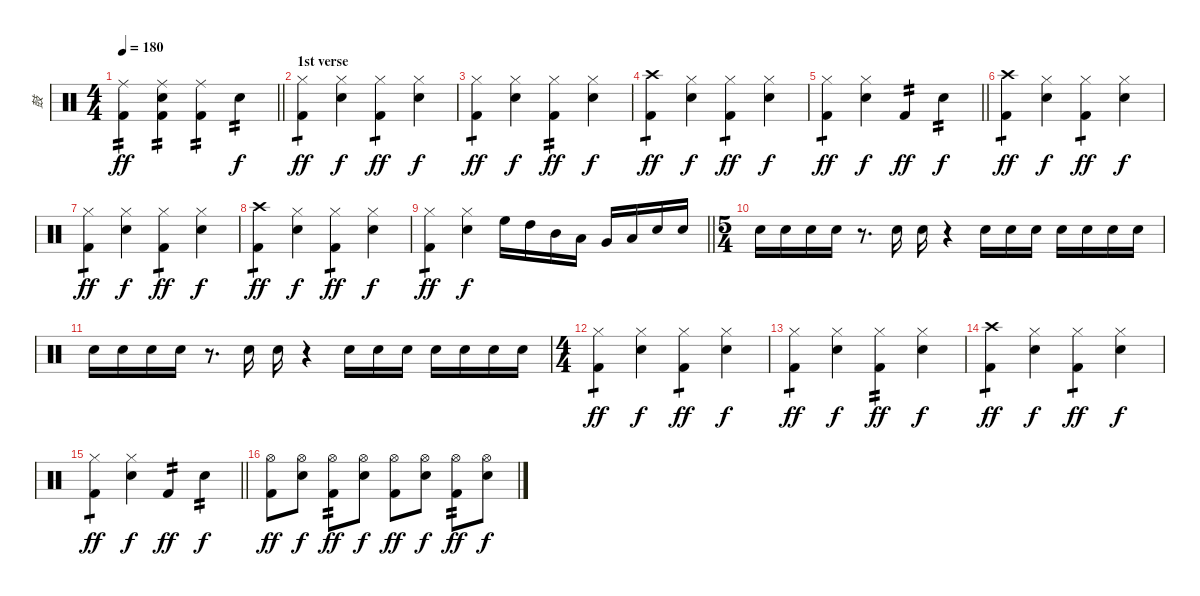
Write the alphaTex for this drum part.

\track ("鼓" "鼓") {instrument percussion}
\staff {score}
\articulation defaults
\ts (4 4)
\tempo 180
\clef neutral
\barLineRight lightlight
\ks c
("Ride (middle)" "Kick (hit) 2").4{tp 2 dy ff} ("Ride (middle)" "Snare (hit) 2" "Kick (hit) 2").4{tp 2} ("Ride (middle)" "Kick (hit) 2").4{tp 2} "Snare (hit) 2".4{tp 2 dy f} |
\section ("" "1st verse")
("Hi-Hat (closed)" "Kick (hit) 2").4{tp 1 dy ff} ("Hi-Hat (closed)" "Snare (hit) 2").4{dy f} ("Hi-Hat (closed)" "Kick (hit) 2").4{tp 1 dy ff} ("Hi-Hat (closed)" "Snare (hit) 2").4{dy f} |
("Hi-Hat (closed)" "Kick (hit) 2").4{tp 1 dy ff} ("Hi-Hat (closed)" "Snare (hit) 2").4{dy f} ("Hi-Hat (closed)" "Kick (hit) 2").4{tp 2 dy ff} ("Hi-Hat (closed)" "Snare (hit) 2").4{dy f} |
("Crash high (hit)" "Kick (hit) 2").4{tp 1 dy ff} ("Hi-Hat (closed)" "Snare (hit) 2").4{dy f} ("Hi-Hat (closed)" "Kick (hit) 2").4{tp 1 dy ff} ("Hi-Hat (closed)" "Snare (hit) 2").4{dy f} |
\barLineRight lightlight
("Hi-Hat (closed)" "Kick (hit) 2").4{tp 1 dy ff} ("Hi-Hat (closed)" "Snare (hit) 2").4{dy f} "Kick (hit) 2".4{tp 2 dy ff} "Snare (hit) 2".4{tp 2 dy f} |
("Crash high (hit)" "Kick (hit) 2").4{tp 1 dy ff} ("Hi-Hat (closed)" "Snare (hit) 2").4{dy f} ("Hi-Hat (closed)" "Kick (hit) 2").4{tp 1 dy ff} ("Hi-Hat (closed)" "Snare (hit) 2").4{dy f} |
("Hi-Hat (closed)" "Kick (hit) 2").4{tp 1 dy ff} ("Hi-Hat (closed)" "Snare (hit) 2").4{dy f} ("Hi-Hat (closed)" "Kick (hit) 2").4{tp 1 dy ff} ("Hi-Hat (closed)" "Snare (hit) 2").4{dy f} |
("Crash high (hit)" "Kick (hit) 2").4{tp 1 dy ff} ("Hi-Hat (closed)" "Snare (hit) 2").4{dy f} ("Hi-Hat (closed)" "Kick (hit) 2").4{tp 1 dy ff} ("Hi-Hat (closed)" "Snare (hit) 2").4{dy f} |
\barLineRight lightlight
("Hi-Hat (closed)" "Kick (hit) 2").4{tp 1 dy ff} ("Hi-Hat (closed)" "Snare (hit) 2").4{dy f} "High Floor Tom (hit)".16 "High Tom (hit)".16 "Mid Tom (hit)".16 "Low Tom (hit)".16 "Very Low Tom (hit)".16 "Low Floor Tom (hit)".16 "Snare (hit) 2".16 "Snare (hit) 2".16 |
\ts (5 4)
"Snare (hit) 2".16 "Snare (hit) 2".16 "Snare (hit) 2".16 "Snare (hit) 2".16 r.8{d} "Snare (hit) 2".16 "Snare (hit) 2".16 r.4 "Snare (hit) 2".16 "Snare (hit) 2".16 "Snare (hit) 2".16 "Snare (hit) 2".16 "Snare (hit) 2".16 "Snare (hit) 2".16 "Snare (hit) 2".16 |
"Snare (hit) 2".16 "Snare (hit) 2".16 "Snare (hit) 2".16 "Snare (hit) 2".16 r.8{d} "Snare (hit) 2".16 "Snare (hit) 2".16 r.4 "Snare (hit) 2".16 "Snare (hit) 2".16 "Snare (hit) 2".16 "Snare (hit) 2".16 "Snare (hit) 2".16 "Snare (hit) 2".16 "Snare (hit) 2".16 |
\ts (4 4)
("Hi-Hat (closed)" "Kick (hit) 2").4{tp 1 dy ff} ("Hi-Hat (closed)" "Snare (hit) 2").4{dy f} ("Hi-Hat (closed)" "Kick (hit) 2").4{tp 1 dy ff} ("Hi-Hat (closed)" "Snare (hit) 2").4{dy f} |
("Hi-Hat (closed)" "Kick (hit) 2").4{tp 1 dy ff} ("Hi-Hat (closed)" "Snare (hit) 2").4{dy f} ("Hi-Hat (closed)" "Kick (hit) 2").4{tp 2 dy ff} ("Hi-Hat (closed)" "Snare (hit) 2").4{dy f} |
("Crash high (hit)" "Kick (hit) 2").4{tp 1 dy ff} ("Hi-Hat (closed)" "Snare (hit) 2").4{dy f} ("Hi-Hat (closed)" "Kick (hit) 2").4{tp 1 dy ff} ("Hi-Hat (closed)" "Snare (hit) 2").4{dy f} |
\barLineRight lightlight
("Hi-Hat (closed)" "Kick (hit) 2").4{tp 1 dy ff} ("Hi-Hat (closed)" "Snare (hit) 2").4{dy f} "Kick (hit) 2".4{tp 2 dy ff} "Snare (hit) 2".4{tp 2 dy f} |
("Hi-Hat (open)" "Kick (hit) 2").8{dy ff} ("Hi-Hat (open)" "Snare (hit) 2").8{dy f} ("Hi-Hat (open)" "Kick (hit) 2").8{tp 2 dy ff} ("Hi-Hat (open)" "Snare (hit) 2").8{dy f} ("Hi-Hat (open)" "Kick (hit) 2").8{dy ff} ("Hi-Hat (open)" "Snare (hit) 2").8{dy f} ("Hi-Hat (open)" "Kick (hit) 2").8{tp 2 dy ff} ("Hi-Hat (open)" "Snare (hit) 2").8{dy f}
